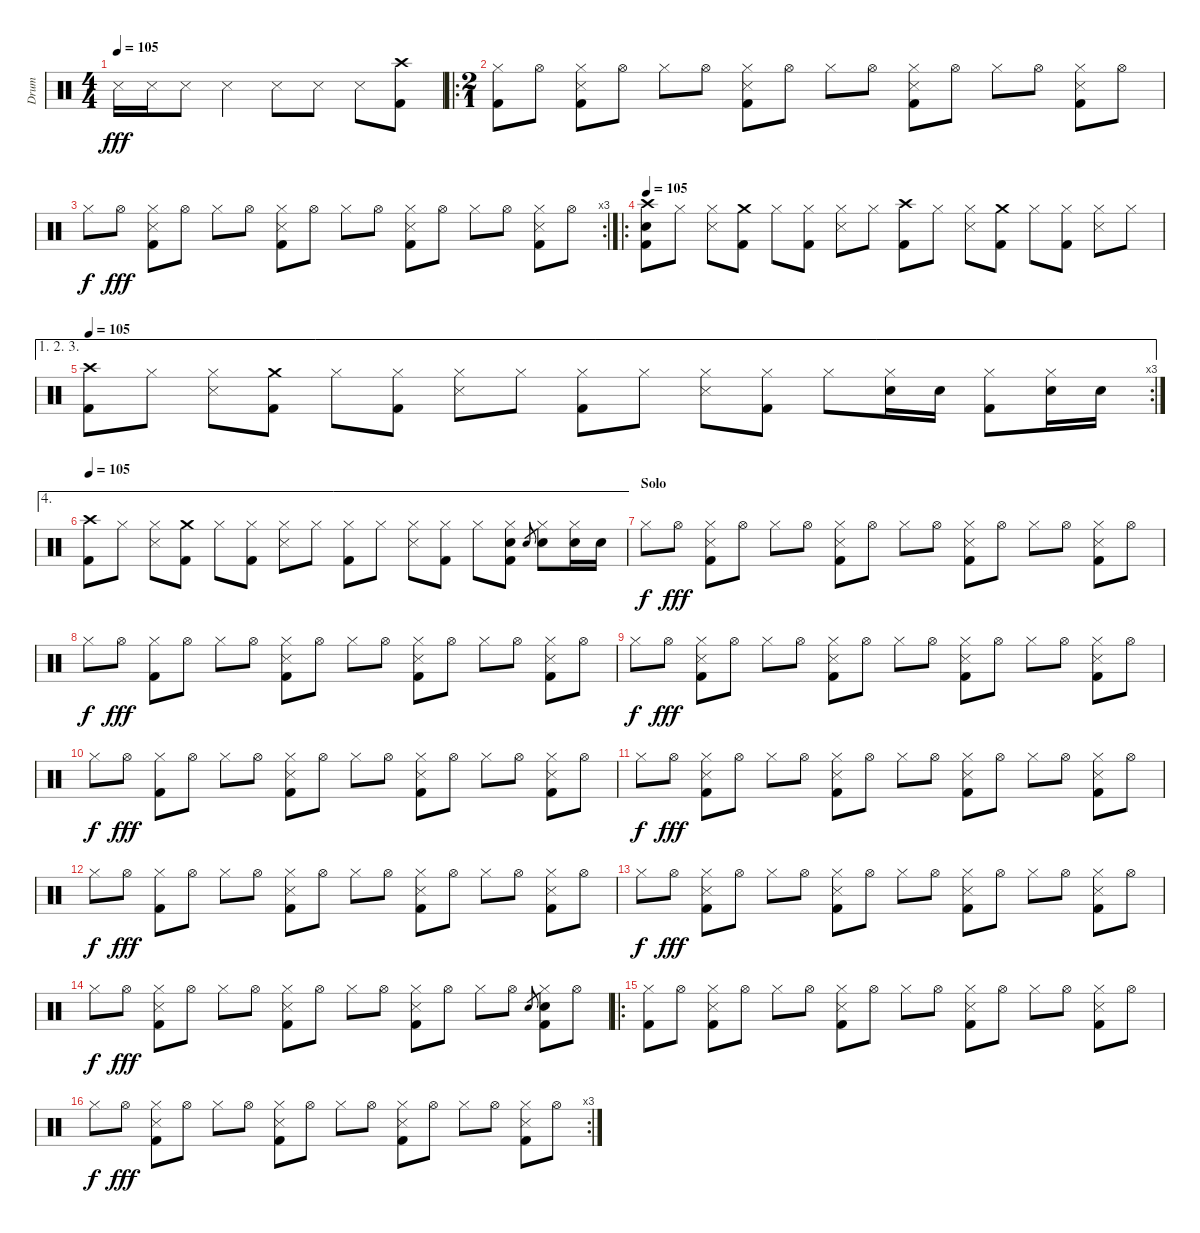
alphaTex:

\track ("Drum" "Drum") {instrument percussion}
\staff {score}
\articulation defaults
\ts (4 4)
\tempo 105
\tempo 104
\tempo 105
\clef neutral
\ks c "Snare (side stick) 3".16{dy fff} "Snare (side stick) 3".16 "Snare (side stick) 3".8 "Snare (side stick) 3".4 "Snare (side stick) 3".8 "Snare (side stick) 3".8 "Snare (side stick) 3".8
("Crash high (hit)" "Kick (hit) 2").8 |
\ro
\ts (2 1)
("Hi-Hat (closed)" "Kick (hit) 2").8 "Hi-Hat (open)".8 ("Hi-Hat (closed)" "Snare (side stick) 3" "Kick (hit) 2").8 "Hi-Hat (open)".8 "Hi-Hat (closed)".8 "Hi-Hat (open)".8 ("Hi-Hat (closed)" "Snare (side stick) 3" "Kick (hit) 2").8 "Hi-Hat (open)".8 "Hi-Hat (closed)".8 "Hi-Hat (open)".8 ("Hi-Hat (closed)" "Snare (side stick) 3" "Kick (hit) 2").8 "Hi-Hat (open)".8 "Hi-Hat (closed)".8 "Hi-Hat (open)".8 ("Hi-Hat (closed)" "Snare (side stick) 3" "Kick (hit) 2").8 "Hi-Hat (open)".8 |
\rc 3 "Hi-Hat (closed)".8{dy f} "Hi-Hat (open)".8{dy fff}
("Hi-Hat (closed)" "Snare (side stick) 3" "Kick (hit) 2").8 "Hi-Hat (open)".8 "Hi-Hat (closed)".8 "Hi-Hat (open)".8 ("Hi-Hat (closed)" "Snare (side stick) 3" "Kick (hit) 2").8 "Hi-Hat (open)".8 "Hi-Hat (closed)".8 "Hi-Hat (open)".8 ("Hi-Hat (closed)" "Snare (side stick) 3" "Kick (hit) 2").8 "Hi-Hat (open)".8 "Hi-Hat (closed)".8 "Hi-Hat (open)".8 ("Hi-Hat (closed)" "Snare (side stick) 3" "Kick (hit) 2").8 "Hi-Hat (open)".8 |
\ro
\tempo 105
("Crash high (hit)" "Snare (hit) 2" "Kick (hit) 2").8 "Hi-Hat (closed)".8 ("Hi-Hat (closed)" "Snare (side stick) 3").8 ("Crash medium (hit)" "Kick (hit) 2").8 "Hi-Hat (closed)".8 ("Hi-Hat (closed)" "Kick (hit) 2").8 ("Hi-Hat (closed)" "Snare (side stick) 3").8 "Hi-Hat (closed)".8 ("Crash high (hit)" "Kick (hit) 2").8 "Hi-Hat (closed)".8 ("Hi-Hat (closed)" "Snare (side stick) 3").8 ("Crash medium (hit)" "Kick (hit) 2").8 "Hi-Hat (closed)".8 ("Hi-Hat (closed)" "Kick (hit) 2").8 ("Hi-Hat (closed)" "Snare (side stick) 3").8 "Hi-Hat (closed)".8 |
\ae (1 2 3)
\rc 3
\tempo 105
("Crash high (hit)" "Kick (hit) 2").8 "Hi-Hat (closed)".8 ("Hi-Hat (closed)" "Snare (side stick) 3").8 ("Crash medium (hit)" "Kick (hit) 2").8 "Hi-Hat (closed)".8 ("Hi-Hat (closed)" "Kick (hit) 2").8 ("Hi-Hat (closed)" "Snare (side stick) 3").8 "Hi-Hat (closed)".8 ("Hi-Hat (closed)" "Kick (hit) 2").8 "Hi-Hat (closed)".8 ("Hi-Hat (closed)" "Snare (side stick) 3").8 ("Hi-Hat (closed)" "Kick (hit) 2").8 "Hi-Hat (closed)".8 ("Hi-Hat (closed)" "Snare (hit) 2").16 "Snare (hit) 2".16 ("Hi-Hat (closed)" "Kick (hit) 2").8 ("Hi-Hat (closed)" "Snare (hit) 2").16 "Snare (hit) 2".16 |
\ae 4
\tempo 105
("Crash high (hit)" "Kick (hit) 2").8 "Hi-Hat (closed)".8 ("Hi-Hat (closed)" "Snare (side stick) 3").8 ("Crash medium (hit)" "Kick (hit) 2").8 "Hi-Hat (closed)".8 ("Hi-Hat (closed)" "Kick (hit) 2").8 ("Hi-Hat (closed)" "Snare (side stick) 3").8 "Hi-Hat (closed)".8 ("Hi-Hat (closed)" "Kick (hit) 2").8 "Hi-Hat (closed)".8 ("Hi-Hat (closed)" "Snare (side stick) 3").8 ("Hi-Hat (closed)" "Kick (hit) 2").8 "Hi-Hat (closed)".8 ("Hi-Hat (closed)" "Snare (hit) 2" "Kick (hit) 2").8 "Snare (hit) 2".8{gr} ("Hi-Hat (closed)" "Snare (hit) 2").8 ("Hi-Hat (closed)" "Snare (hit) 2").16 "Snare (hit) 2".16 |
\section ("" "Solo")
"Hi-Hat (closed)".8{dy f} "Hi-Hat (open)".8{dy fff} ("Hi-Hat (closed)" "Snare (side stick) 3" "Kick (hit) 2").8 "Hi-Hat (open)".8 "Hi-Hat (closed)".8 "Hi-Hat (open)".8 ("Hi-Hat (closed)" "Snare (side stick) 3" "Kick (hit) 2").8 "Hi-Hat (open)".8 "Hi-Hat (closed)".8 "Hi-Hat (open)".8 ("Hi-Hat (closed)" "Snare (side stick) 3" "Kick (hit) 2").8 "Hi-Hat (open)".8 "Hi-Hat (closed)".8 "Hi-Hat (open)".8 ("Hi-Hat (closed)" "Snare (side stick) 3" "Kick (hit) 2").8 "Hi-Hat (open)".8 |
"Hi-Hat (closed)".8{dy f} "Hi-Hat (open)".8{dy fff} ("Hi-Hat (closed)" "Kick (hit) 2").8 "Hi-Hat (open)".8 "Hi-Hat (closed)".8 "Hi-Hat (open)".8 ("Hi-Hat (closed)" "Snare (side stick) 3" "Kick (hit) 2").8 "Hi-Hat (open)".8 "Hi-Hat (closed)".8 "Hi-Hat (open)".8 ("Hi-Hat (closed)" "Snare (side stick) 3" "Kick (hit) 2").8 "Hi-Hat (open)".8 "Hi-Hat (closed)".8 "Hi-Hat (open)".8 ("Hi-Hat (closed)" "Snare (side stick) 3" "Kick (hit) 2").8 "Hi-Hat (open)".8 |
"Hi-Hat (closed)".8{dy f} "Hi-Hat (open)".8{dy fff} ("Hi-Hat (closed)" "Snare (side stick) 3" "Kick (hit) 2").8 "Hi-Hat (open)".8 "Hi-Hat (closed)".8 "Hi-Hat (open)".8 ("Hi-Hat (closed)" "Snare (side stick) 3" "Kick (hit) 2").8 "Hi-Hat (open)".8 "Hi-Hat (closed)".8 "Hi-Hat (open)".8 ("Hi-Hat (closed)" "Snare (side stick) 3" "Kick (hit) 2").8 "Hi-Hat (open)".8 "Hi-Hat (closed)".8 "Hi-Hat (open)".8 ("Hi-Hat (closed)" "Snare (side stick) 3" "Kick (hit) 2").8 "Hi-Hat (open)".8 |
"Hi-Hat (closed)".8{dy f} "Hi-Hat (open)".8{dy fff} ("Hi-Hat (closed)" "Kick (hit) 2").8 "Hi-Hat (open)".8 "Hi-Hat (closed)".8 "Hi-Hat (open)".8 ("Hi-Hat (closed)" "Snare (side stick) 3" "Kick (hit) 2").8 "Hi-Hat (open)".8 "Hi-Hat (closed)".8 "Hi-Hat (open)".8 ("Hi-Hat (closed)" "Snare (side stick) 3" "Kick (hit) 2").8 "Hi-Hat (open)".8 "Hi-Hat (closed)".8 "Hi-Hat (open)".8 ("Hi-Hat (closed)" "Snare (side stick) 3" "Kick (hit) 2").8 "Hi-Hat (open)".8 |
"Hi-Hat (closed)".8{dy f} "Hi-Hat (open)".8{dy fff} ("Hi-Hat (closed)" "Snare (side stick) 3" "Kick (hit) 2").8 "Hi-Hat (open)".8 "Hi-Hat (closed)".8 "Hi-Hat (open)".8 ("Hi-Hat (closed)" "Snare (side stick) 3" "Kick (hit) 2").8 "Hi-Hat (open)".8 "Hi-Hat (closed)".8 "Hi-Hat (open)".8 ("Hi-Hat (closed)" "Snare (side stick) 3" "Kick (hit) 2").8 "Hi-Hat (open)".8 "Hi-Hat (closed)".8 "Hi-Hat (open)".8 ("Hi-Hat (closed)" "Snare (side stick) 3" "Kick (hit) 2").8 "Hi-Hat (open)".8 |
"Hi-Hat (closed)".8{dy f} "Hi-Hat (open)".8{dy fff} ("Hi-Hat (closed)" "Kick (hit) 2").8 "Hi-Hat (open)".8 "Hi-Hat (closed)".8 "Hi-Hat (open)".8 ("Hi-Hat (closed)" "Snare (side stick) 3" "Kick (hit) 2").8 "Hi-Hat (open)".8 "Hi-Hat (closed)".8 "Hi-Hat (open)".8 ("Hi-Hat (closed)" "Snare (side stick) 3" "Kick (hit) 2").8 "Hi-Hat (open)".8 "Hi-Hat (closed)".8 "Hi-Hat (open)".8 ("Hi-Hat (closed)" "Snare (side stick) 3" "Kick (hit) 2").8 "Hi-Hat (open)".8 |
"Hi-Hat (closed)".8{dy f} "Hi-Hat (open)".8{dy fff} ("Hi-Hat (closed)" "Snare (side stick) 3" "Kick (hit) 2").8 "Hi-Hat (open)".8 "Hi-Hat (closed)".8 "Hi-Hat (open)".8 ("Hi-Hat (closed)" "Snare (side stick) 3" "Kick (hit) 2").8 "Hi-Hat (open)".8 "Hi-Hat (closed)".8 "Hi-Hat (open)".8 ("Hi-Hat (closed)" "Snare (side stick) 3" "Kick (hit) 2").8 "Hi-Hat (open)".8 "Hi-Hat (closed)".8 "Hi-Hat (open)".8 ("Hi-Hat (closed)" "Snare (side stick) 3" "Kick (hit) 2").8 "Hi-Hat (open)".8 |
"Hi-Hat (closed)".8{dy f} "Hi-Hat (open)".8{dy fff} ("Hi-Hat (closed)" "Snare (side stick) 3" "Kick (hit) 2").8 "Hi-Hat (open)".8 "Hi-Hat (closed)".8 "Hi-Hat (open)".8 ("Hi-Hat (closed)" "Snare (side stick) 3" "Kick (hit) 2").8 "Hi-Hat (open)".8 "Hi-Hat (closed)".8 "Hi-Hat (open)".8 ("Hi-Hat (closed)" "Snare (side stick) 3" "Kick (hit) 2").8 "Hi-Hat (open)".8 "Hi-Hat (closed)".8 "Hi-Hat (open)".8 "Snare (hit) 2".8{gr} ("Hi-Hat (closed)" "Snare (hit) 2" "Kick (hit) 2").8 "Hi-Hat (open)".8 |
\ro
("Hi-Hat (closed)" "Kick (hit) 2").8 "Hi-Hat (open)".8 ("Hi-Hat (closed)" "Snare (side stick) 3" "Kick (hit) 2").8 "Hi-Hat (open)".8 "Hi-Hat (closed)".8 "Hi-Hat (open)".8 ("Hi-Hat (closed)" "Snare (side stick) 3" "Kick (hit) 2").8 "Hi-Hat (open)".8 "Hi-Hat (closed)".8 "Hi-Hat (open)".8 ("Hi-Hat (closed)" "Snare (side stick) 3" "Kick (hit) 2").8 "Hi-Hat (open)".8 "Hi-Hat (closed)".8 "Hi-Hat (open)".8 ("Hi-Hat (closed)" "Snare (side stick) 3" "Kick (hit) 2").8 "Hi-Hat (open)".8 |
\rc 3 "Hi-Hat (closed)".8{dy f} "Hi-Hat (open)".8{dy fff}
("Hi-Hat (closed)" "Snare (side stick) 3" "Kick (hit) 2").8 "Hi-Hat (open)".8 "Hi-Hat (closed)".8 "Hi-Hat (open)".8 ("Hi-Hat (closed)" "Snare (side stick) 3" "Kick (hit) 2").8 "Hi-Hat (open)".8 "Hi-Hat (closed)".8 "Hi-Hat (open)".8 ("Hi-Hat (closed)" "Snare (side stick) 3" "Kick (hit) 2").8 "Hi-Hat (open)".8 "Hi-Hat (closed)".8 "Hi-Hat (open)".8 ("Hi-Hat (closed)" "Snare (side stick) 3" "Kick (hit) 2").8 "Hi-Hat (open)".8
